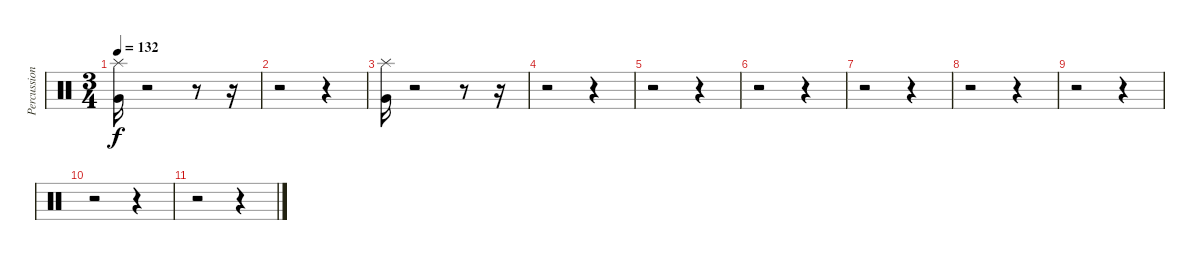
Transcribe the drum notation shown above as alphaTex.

\track ("Percussion" "Percussion") {instrument percussion}
\staff {score}
\articulation defaults
\ts (3 4)
\tempo 132
\clef neutral
\ks c
("Very Low Tom (hit)" "Splash (hit)").16{dy f} r.2 r.8 r.16 |
r.2 r.4 |
("Very Low Tom (hit)" "Splash (hit)").16 r.2 r.8 r.16 |
r.2 r.4 |
r.2 r.4 |
r.2 r.4 |
r.2 r.4 |
r.2 r.4 |
r.2 r.4 |
r.2 r.4 |
r.2 r.4
